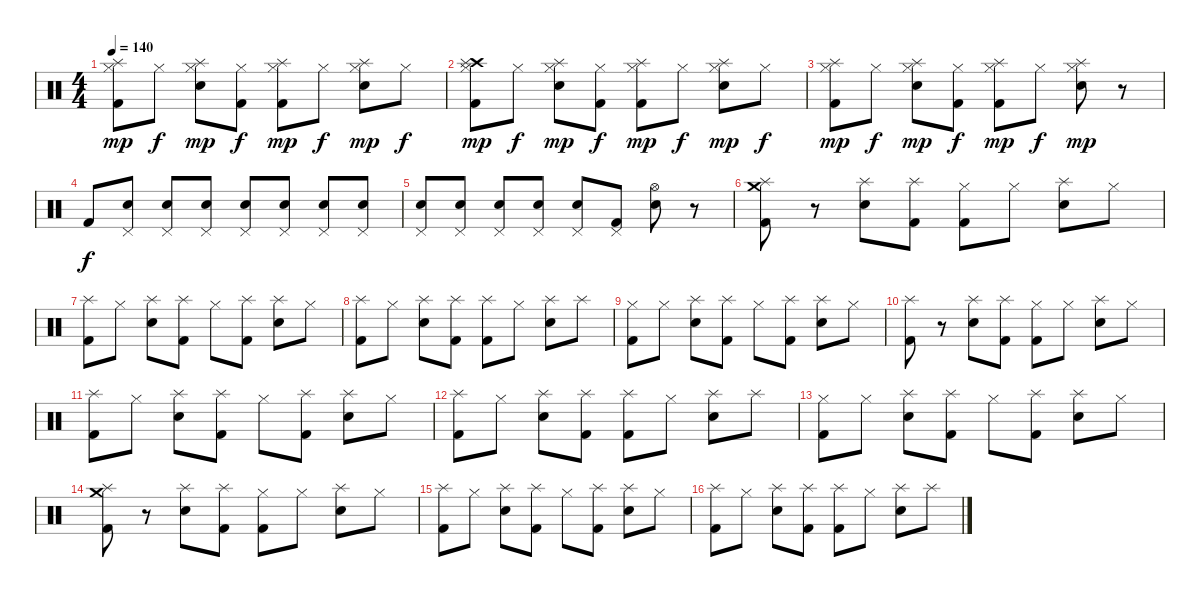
\track "" {instrument percussion}
\staff {score}
\articulation defaults
\ts (4 4)
\tempo 140
\clef neutral
\ks c
("Hi-Hat (closed)" "Splash (hit)" "Kick (hit) 2").8{dy mp} "Hi-Hat (closed)".8{dy f} ("Hi-Hat (closed)" "Splash (hit)" "Electric Snare (hit)").8{dy mp} ("Hi-Hat (closed)" "Kick (hit) 2").8{dy f} ("Hi-Hat (closed)" "Splash (hit)" "Kick (hit) 2").8{dy mp} "Hi-Hat (closed)".8{dy f} ("Hi-Hat (closed)" "Splash (hit)" "Electric Snare (hit)").8{dy mp} "Hi-Hat (closed)".8{dy f} |
("Crash high (hit)" "Hi-Hat (closed)" "Splash (hit)" "Kick (hit) 2").8{dy mp} "Hi-Hat (closed)".8{dy f} ("Hi-Hat (closed)" "Splash (hit)" "Electric Snare (hit)").8{dy mp} ("Hi-Hat (closed)" "Kick (hit) 2").8{dy f} ("Hi-Hat (closed)" "Splash (hit)" "Kick (hit) 2").8{dy mp} "Hi-Hat (closed)".8{dy f} ("Hi-Hat (closed)" "Splash (hit)" "Electric Snare (hit)").8{dy mp} "Hi-Hat (closed)".8{dy f} |
("Hi-Hat (closed)" "Splash (hit)" "Kick (hit) 2").8{dy mp} "Hi-Hat (closed)".8{dy f} ("Hi-Hat (closed)" "Splash (hit)" "Electric Snare (hit)").8{dy mp} ("Hi-Hat (closed)" "Kick (hit) 2").8{dy f} ("Hi-Hat (closed)" "Splash (hit)" "Kick (hit) 2").8{dy mp} "Hi-Hat (closed)".8{dy f} ("Hi-Hat (closed)" "Splash (hit)" "Electric Snare (hit)").8{dy mp} r.8 |
"Kick (hit) 2".8{dy f} ("Pedal Hi-Hat (hit)" "Electric Snare (hit)").8 ("Pedal Hi-Hat (hit)" "Electric Snare (hit)").8 ("Pedal Hi-Hat (hit)" "Electric Snare (hit)").8 ("Pedal Hi-Hat (hit)" "Electric Snare (hit)").8 ("Pedal Hi-Hat (hit)" "Electric Snare (hit)").8 ("Pedal Hi-Hat (hit)" "Electric Snare (hit)").8 ("Pedal Hi-Hat (hit)" "Electric Snare (hit)").8 |
("Pedal Hi-Hat (hit)" "Electric Snare (hit)").8 ("Pedal Hi-Hat (hit)" "Electric Snare (hit)").8 ("Pedal Hi-Hat (hit)" "Electric Snare (hit)").8 ("Pedal Hi-Hat (hit)" "Electric Snare (hit)").8 ("Pedal Hi-Hat (hit)" "Electric Snare (hit)").8 ("Pedal Hi-Hat (hit)" "Kick (hit) 2").8 ("Hi-Hat (open)" "Electric Snare (hit)").8 r.8 |
("Splash (hit)" "Crash medium (hit)" "Kick (hit) 2").8 r.8 ("Splash (hit)" "Electric Snare (hit)").8 ("Splash (hit)" "Kick (hit) 2").8 ("Hi-Hat (closed)" "Kick (hit) 2").8 "Hi-Hat (closed)".8 ("Splash (hit)" "Electric Snare (hit)").8 "Hi-Hat (closed)".8 |
("Splash (hit)" "Kick (hit) 2").8 "Hi-Hat (closed)".8 ("Splash (hit)" "Electric Snare (hit)").8 ("Splash (hit)" "Kick (hit) 2").8 "Hi-Hat (closed)".8 ("Splash (hit)" "Kick (hit) 2").8 ("Splash (hit)" "Electric Snare (hit)").8 "Hi-Hat (closed)".8 |
("Splash (hit)" "Kick (hit) 2").8 "Hi-Hat (closed)".8 ("Splash (hit)" "Electric Snare (hit)").8 ("Splash (hit)" "Kick (hit) 2").8 ("Splash (hit)" "Kick (hit) 2").8 "Hi-Hat (closed)".8 ("Splash (hit)" "Electric Snare (hit)").8 "Splash (hit)".8 |
("Hi-Hat (closed)" "Kick (hit) 2").8 "Hi-Hat (closed)".8 ("Splash (hit)" "Electric Snare (hit)").8 ("Splash (hit)" "Kick (hit) 2").8 "Hi-Hat (closed)".8 ("Splash (hit)" "Kick (hit) 2").8 ("Splash (hit)" "Electric Snare (hit)").8 "Hi-Hat (closed)".8 |
("Splash (hit)" "Kick (hit) 2").8 r.8 ("Splash (hit)" "Electric Snare (hit)").8 ("Splash (hit)" "Kick (hit) 2").8 ("Hi-Hat (closed)" "Kick (hit) 2").8 "Hi-Hat (closed)".8 ("Splash (hit)" "Electric Snare (hit)").8 "Hi-Hat (closed)".8 |
("Splash (hit)" "Kick (hit) 2").8 "Hi-Hat (closed)".8 ("Splash (hit)" "Electric Snare (hit)").8 ("Splash (hit)" "Kick (hit) 2").8 "Hi-Hat (closed)".8 ("Splash (hit)" "Kick (hit) 2").8 ("Splash (hit)" "Electric Snare (hit)").8 "Hi-Hat (closed)".8 |
("Splash (hit)" "Kick (hit) 2").8 "Hi-Hat (closed)".8 ("Splash (hit)" "Electric Snare (hit)").8 ("Splash (hit)" "Kick (hit) 2").8 ("Splash (hit)" "Kick (hit) 2").8 "Hi-Hat (closed)".8 ("Splash (hit)" "Electric Snare (hit)").8 "Splash (hit)".8 |
("Hi-Hat (closed)" "Kick (hit) 2").8 "Hi-Hat (closed)".8 ("Splash (hit)" "Electric Snare (hit)").8 ("Splash (hit)" "Kick (hit) 2").8 "Hi-Hat (closed)".8 ("Splash (hit)" "Kick (hit) 2").8 ("Splash (hit)" "Electric Snare (hit)").8 "Hi-Hat (closed)".8 |
("Splash (hit)" "Crash medium (hit)" "Kick (hit) 2").8 r.8 ("Splash (hit)" "Electric Snare (hit)").8 ("Splash (hit)" "Kick (hit) 2").8 ("Hi-Hat (closed)" "Kick (hit) 2").8 "Hi-Hat (closed)".8 ("Splash (hit)" "Electric Snare (hit)").8 "Hi-Hat (closed)".8 |
("Splash (hit)" "Kick (hit) 2").8 "Hi-Hat (closed)".8 ("Splash (hit)" "Electric Snare (hit)").8 ("Splash (hit)" "Kick (hit) 2").8 "Hi-Hat (closed)".8 ("Splash (hit)" "Kick (hit) 2").8 ("Splash (hit)" "Electric Snare (hit)").8 "Hi-Hat (closed)".8 |
("Splash (hit)" "Kick (hit) 2").8 "Hi-Hat (closed)".8 ("Splash (hit)" "Electric Snare (hit)").8 ("Splash (hit)" "Kick (hit) 2").8 ("Splash (hit)" "Kick (hit) 2").8 "Hi-Hat (closed)".8 ("Splash (hit)" "Electric Snare (hit)").8 "Splash (hit)".8
